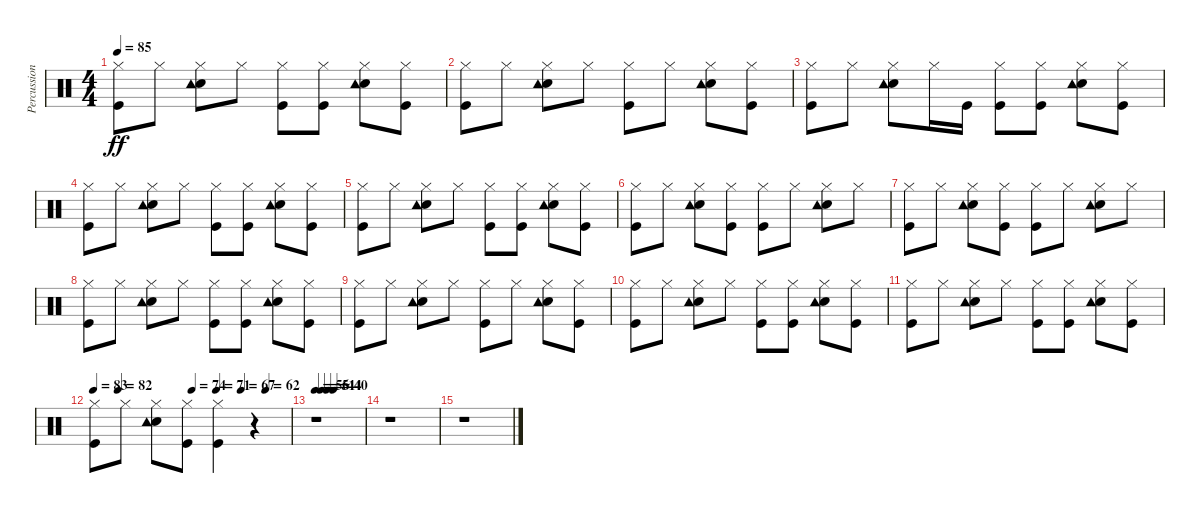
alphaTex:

\track ("Percussion" "Percussion") {instrument percussion}
\staff {score}
\articulation defaults
\ts (4 4)
\tempo 85
\clef neutral
\ks c
("Kick (hit)" "Hi-Hat (closed)").8{dy ff} "Hi-Hat (closed)".8 ("Snare (hit) 2" "Hi-Hat (closed)" "Tambourine (hit)").8 "Hi-Hat (closed)".8 ("Kick (hit)" "Hi-Hat (closed)").8 ("Kick (hit)" "Hi-Hat (closed)").8 ("Snare (hit) 2" "Hi-Hat (closed)" "Tambourine (hit)").8 ("Kick (hit)" "Hi-Hat (closed)").8 |
("Kick (hit)" "Hi-Hat (closed)").8 "Hi-Hat (closed)".8 ("Snare (hit) 2" "Hi-Hat (closed)" "Tambourine (hit)").8 "Hi-Hat (closed)".8 ("Kick (hit)" "Hi-Hat (closed)").8 "Hi-Hat (closed)".8 ("Snare (hit) 2" "Hi-Hat (closed)" "Tambourine (hit)").8 ("Kick (hit)" "Hi-Hat (closed)").8 |
("Kick (hit)" "Hi-Hat (closed)").8 "Hi-Hat (closed)".8 ("Snare (hit) 2" "Hi-Hat (closed)" "Tambourine (hit)").8 "Hi-Hat (closed)".16 "Kick (hit)".16 ("Kick (hit)" "Hi-Hat (closed)").8 ("Kick (hit)" "Hi-Hat (closed)").8 ("Snare (hit) 2" "Hi-Hat (closed)" "Tambourine (hit)").8 ("Kick (hit)" "Hi-Hat (closed)").8 |
("Kick (hit)" "Hi-Hat (closed)").8 "Hi-Hat (closed)".8 ("Snare (hit) 2" "Hi-Hat (closed)" "Tambourine (hit)").8 "Hi-Hat (closed)".8 ("Kick (hit)" "Hi-Hat (closed)").8 ("Kick (hit)" "Hi-Hat (closed)").8 ("Snare (hit) 2" "Hi-Hat (closed)" "Tambourine (hit)").8 ("Kick (hit)" "Hi-Hat (closed)").8 |
("Kick (hit)" "Hi-Hat (closed)").8 "Hi-Hat (closed)".8 ("Snare (hit) 2" "Hi-Hat (closed)" "Tambourine (hit)").8 "Hi-Hat (closed)".8 ("Kick (hit)" "Hi-Hat (closed)").8 ("Kick (hit)" "Hi-Hat (closed)").8 ("Snare (hit) 2" "Hi-Hat (closed)" "Tambourine (hit)").8 ("Kick (hit)" "Hi-Hat (closed)").8 |
("Kick (hit)" "Hi-Hat (closed)").8 "Hi-Hat (closed)".8 ("Snare (hit) 2" "Hi-Hat (closed)" "Tambourine (hit)").8 ("Kick (hit)" "Hi-Hat (closed)").8 ("Kick (hit)" "Hi-Hat (closed)").8 "Hi-Hat (closed)".8 ("Snare (hit) 2" "Hi-Hat (closed)" "Tambourine (hit)").8 "Hi-Hat (closed)".8 |
("Kick (hit)" "Hi-Hat (closed)").8 "Hi-Hat (closed)".8 ("Snare (hit) 2" "Hi-Hat (closed)" "Tambourine (hit)").8 ("Kick (hit)" "Hi-Hat (closed)").8 ("Kick (hit)" "Hi-Hat (closed)").8 "Hi-Hat (closed)".8 ("Snare (hit) 2" "Hi-Hat (closed)" "Tambourine (hit)").8 "Hi-Hat (closed)".8 |
("Kick (hit)" "Hi-Hat (closed)").8 "Hi-Hat (closed)".8 ("Snare (hit) 2" "Hi-Hat (closed)" "Tambourine (hit)").8 "Hi-Hat (closed)".8 ("Kick (hit)" "Hi-Hat (closed)").8 ("Kick (hit)" "Hi-Hat (closed)").8 ("Snare (hit) 2" "Hi-Hat (closed)" "Tambourine (hit)").8 ("Kick (hit)" "Hi-Hat (closed)").8 |
("Kick (hit)" "Hi-Hat (closed)").8 "Hi-Hat (closed)".8 ("Snare (hit) 2" "Hi-Hat (closed)" "Tambourine (hit)").8 "Hi-Hat (closed)".8 ("Kick (hit)" "Hi-Hat (closed)").8 "Hi-Hat (closed)".8 ("Snare (hit) 2" "Hi-Hat (closed)" "Tambourine (hit)").8 ("Kick (hit)" "Hi-Hat (closed)").8 |
("Kick (hit)" "Hi-Hat (closed)").8 "Hi-Hat (closed)".8 ("Snare (hit) 2" "Hi-Hat (closed)" "Tambourine (hit)").8 "Hi-Hat (closed)".8 ("Kick (hit)" "Hi-Hat (closed)").8 ("Kick (hit)" "Hi-Hat (closed)").8 ("Snare (hit) 2" "Hi-Hat (closed)" "Tambourine (hit)").8 ("Kick (hit)" "Hi-Hat (closed)").8 |
("Kick (hit)" "Hi-Hat (closed)").8 "Hi-Hat (closed)".8 ("Snare (hit) 2" "Hi-Hat (closed)" "Tambourine (hit)").8 "Hi-Hat (closed)".8 ("Kick (hit)" "Hi-Hat (closed)").8 ("Kick (hit)" "Hi-Hat (closed)").8 ("Snare (hit) 2" "Hi-Hat (closed)" "Tambourine (hit)").8 ("Kick (hit)" "Hi-Hat (closed)").8 |
\tempo 83
\tempo (82 0.125)
\tempo (74 0.5)
\tempo (71 0.625)
\tempo (67 0.75)
\tempo (62 0.875)
("Kick (hit)" "Hi-Hat (closed)").8 "Hi-Hat (closed)".8 ("Snare (hit) 2" "Hi-Hat (closed)" "Tambourine (hit)").8 ("Kick (hit)" "Hi-Hat (closed)").8 ("Kick (hit)" "Hi-Hat (closed)").4 r.4 |
\tempo 56
\tempo (51 0.125)
\tempo (44 0.25)
\tempo (40 0.375)
r.1 |
r.1 |
r.1
